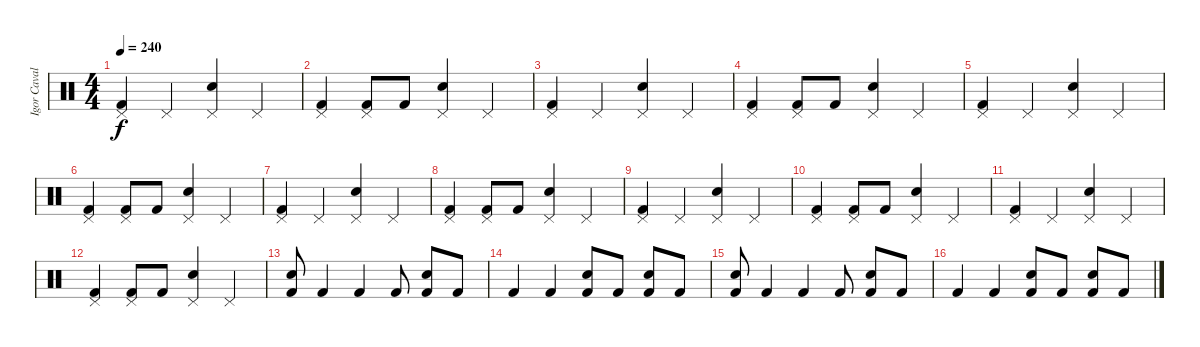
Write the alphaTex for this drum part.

\track ("Igor Cavalera" "Igor Caval") {instrument percussion}
\staff {score}
\articulation defaults
\ts (4 4)
\tempo 240
\clef neutral
\ks c
("Kick (hit) 2" "Pedal Hi-Hat (hit)").4{dy f} "Pedal Hi-Hat (hit)".4 ("Snare (hit) 2" "Pedal Hi-Hat (hit)").4 "Pedal Hi-Hat (hit)".4 |
("Kick (hit) 2" "Pedal Hi-Hat (hit)").4 ("Kick (hit) 2" "Pedal Hi-Hat (hit)").8 "Kick (hit) 2".8 ("Snare (hit) 2" "Pedal Hi-Hat (hit)").4 "Pedal Hi-Hat (hit)".4 |
("Kick (hit) 2" "Pedal Hi-Hat (hit)").4 "Pedal Hi-Hat (hit)".4 ("Snare (hit) 2" "Pedal Hi-Hat (hit)").4 "Pedal Hi-Hat (hit)".4 |
("Kick (hit) 2" "Pedal Hi-Hat (hit)").4 ("Kick (hit) 2" "Pedal Hi-Hat (hit)").8 "Kick (hit) 2".8 ("Snare (hit) 2" "Pedal Hi-Hat (hit)").4 "Pedal Hi-Hat (hit)".4 |
("Kick (hit) 2" "Pedal Hi-Hat (hit)").4 "Pedal Hi-Hat (hit)".4 ("Snare (hit) 2" "Pedal Hi-Hat (hit)").4 "Pedal Hi-Hat (hit)".4 |
("Kick (hit) 2" "Pedal Hi-Hat (hit)").4 ("Kick (hit) 2" "Pedal Hi-Hat (hit)").8 "Kick (hit) 2".8 ("Snare (hit) 2" "Pedal Hi-Hat (hit)").4 "Pedal Hi-Hat (hit)".4 |
("Kick (hit) 2" "Pedal Hi-Hat (hit)").4 "Pedal Hi-Hat (hit)".4 ("Snare (hit) 2" "Pedal Hi-Hat (hit)").4 "Pedal Hi-Hat (hit)".4 |
("Kick (hit) 2" "Pedal Hi-Hat (hit)").4 ("Kick (hit) 2" "Pedal Hi-Hat (hit)").8 "Kick (hit) 2".8 ("Snare (hit) 2" "Pedal Hi-Hat (hit)").4 "Pedal Hi-Hat (hit)".4 |
("Kick (hit) 2" "Pedal Hi-Hat (hit)").4 "Pedal Hi-Hat (hit)".4 ("Snare (hit) 2" "Pedal Hi-Hat (hit)").4 "Pedal Hi-Hat (hit)".4 |
("Kick (hit) 2" "Pedal Hi-Hat (hit)").4 ("Kick (hit) 2" "Pedal Hi-Hat (hit)").8 "Kick (hit) 2".8 ("Snare (hit) 2" "Pedal Hi-Hat (hit)").4 "Pedal Hi-Hat (hit)".4 |
("Kick (hit) 2" "Pedal Hi-Hat (hit)").4 "Pedal Hi-Hat (hit)".4 ("Snare (hit) 2" "Pedal Hi-Hat (hit)").4 "Pedal Hi-Hat (hit)".4 |
("Kick (hit) 2" "Pedal Hi-Hat (hit)").4 ("Kick (hit) 2" "Pedal Hi-Hat (hit)").8 "Kick (hit) 2".8 ("Snare (hit) 2" "Pedal Hi-Hat (hit)").4 "Pedal Hi-Hat (hit)".4 |
\section ("" "")
("Kick (hit) 2" "Snare (hit) 2").8 "Kick (hit) 2".4 "Kick (hit) 2".4 "Kick (hit) 2".8 ("Kick (hit) 2" "Snare (hit) 2").8 "Kick (hit) 2".8 |
"Kick (hit) 2".4 "Kick (hit) 2".4 ("Kick (hit) 2" "Snare (hit) 2").8 "Kick (hit) 2".8 ("Kick (hit) 2" "Snare (hit) 2").8 "Kick (hit) 2".8 |
("Kick (hit) 2" "Snare (hit) 2").8 "Kick (hit) 2".4 "Kick (hit) 2".4 "Kick (hit) 2".8 ("Kick (hit) 2" "Snare (hit) 2").8 "Kick (hit) 2".8 |
"Kick (hit) 2".4 "Kick (hit) 2".4 ("Kick (hit) 2" "Snare (hit) 2").8 "Kick (hit) 2".8 ("Kick (hit) 2" "Snare (hit) 2").8 "Kick (hit) 2".8
